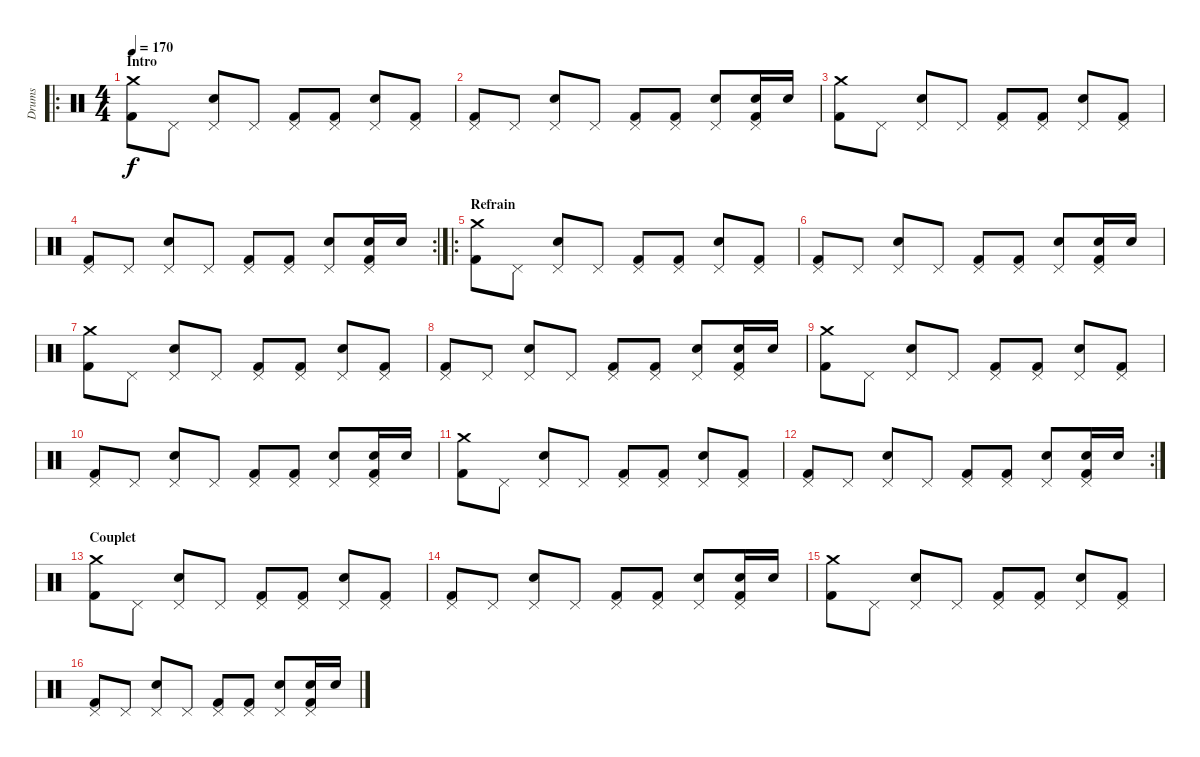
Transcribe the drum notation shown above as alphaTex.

\track ("Drums" "Drums") {instrument percussion}
\staff {score}
\articulation defaults
\ro
\ts (4 4)
\section ("" "Intro")
\tempo 170
\clef neutral
\ks c
("Crash medium (hit)" "Kick (hit) 2").8{dy f} "Pedal Hi-Hat (hit)".8 ("Pedal Hi-Hat (hit)" "Snare (hit) 2").8 "Pedal Hi-Hat (hit)".8 ("Pedal Hi-Hat (hit)" "Kick (hit) 2").8 ("Pedal Hi-Hat (hit)" "Kick (hit) 2").8 ("Pedal Hi-Hat (hit)" "Snare (hit) 2").8 ("Pedal Hi-Hat (hit)" "Kick (hit) 2").8 |
("Pedal Hi-Hat (hit)" "Kick (hit) 2").8 "Pedal Hi-Hat (hit)".8 ("Pedal Hi-Hat (hit)" "Snare (hit) 2").8 "Pedal Hi-Hat (hit)".8 ("Pedal Hi-Hat (hit)" "Kick (hit) 2").8 ("Pedal Hi-Hat (hit)" "Kick (hit) 2").8 ("Pedal Hi-Hat (hit)" "Snare (hit) 2").8 ("Pedal Hi-Hat (hit)" "Snare (hit) 2" "Kick (hit) 2").16 "Snare (hit) 2".16 |
("Crash medium (hit)" "Kick (hit) 2").8 "Pedal Hi-Hat (hit)".8 ("Pedal Hi-Hat (hit)" "Snare (hit) 2").8 "Pedal Hi-Hat (hit)".8 ("Pedal Hi-Hat (hit)" "Kick (hit) 2").8 ("Pedal Hi-Hat (hit)" "Kick (hit) 2").8 ("Pedal Hi-Hat (hit)" "Snare (hit) 2").8 ("Pedal Hi-Hat (hit)" "Kick (hit) 2").8 |
\rc 2
("Pedal Hi-Hat (hit)" "Kick (hit) 2").8 "Pedal Hi-Hat (hit)".8 ("Pedal Hi-Hat (hit)" "Snare (hit) 2").8 "Pedal Hi-Hat (hit)".8 ("Pedal Hi-Hat (hit)" "Kick (hit) 2").8 ("Pedal Hi-Hat (hit)" "Kick (hit) 2").8 ("Pedal Hi-Hat (hit)" "Snare (hit) 2").8 ("Pedal Hi-Hat (hit)" "Snare (hit) 2" "Kick (hit) 2").16 "Snare (hit) 2".16 |
\ro
\section ("" "Refrain")
("Crash medium (hit)" "Kick (hit) 2").8 "Pedal Hi-Hat (hit)".8 ("Pedal Hi-Hat (hit)" "Snare (hit) 2").8 "Pedal Hi-Hat (hit)".8 ("Pedal Hi-Hat (hit)" "Kick (hit) 2").8 ("Pedal Hi-Hat (hit)" "Kick (hit) 2").8 ("Pedal Hi-Hat (hit)" "Snare (hit) 2").8 ("Pedal Hi-Hat (hit)" "Kick (hit) 2").8 |
("Pedal Hi-Hat (hit)" "Kick (hit) 2").8 "Pedal Hi-Hat (hit)".8 ("Pedal Hi-Hat (hit)" "Snare (hit) 2").8 "Pedal Hi-Hat (hit)".8 ("Pedal Hi-Hat (hit)" "Kick (hit) 2").8 ("Pedal Hi-Hat (hit)" "Kick (hit) 2").8 ("Pedal Hi-Hat (hit)" "Snare (hit) 2").8 ("Pedal Hi-Hat (hit)" "Snare (hit) 2" "Kick (hit) 2").16 "Snare (hit) 2".16 |
("Crash medium (hit)" "Kick (hit) 2").8 "Pedal Hi-Hat (hit)".8 ("Pedal Hi-Hat (hit)" "Snare (hit) 2").8 "Pedal Hi-Hat (hit)".8 ("Pedal Hi-Hat (hit)" "Kick (hit) 2").8 ("Pedal Hi-Hat (hit)" "Kick (hit) 2").8 ("Pedal Hi-Hat (hit)" "Snare (hit) 2").8 ("Pedal Hi-Hat (hit)" "Kick (hit) 2").8 |
("Pedal Hi-Hat (hit)" "Kick (hit) 2").8 "Pedal Hi-Hat (hit)".8 ("Pedal Hi-Hat (hit)" "Snare (hit) 2").8 "Pedal Hi-Hat (hit)".8 ("Pedal Hi-Hat (hit)" "Kick (hit) 2").8 ("Pedal Hi-Hat (hit)" "Kick (hit) 2").8 ("Pedal Hi-Hat (hit)" "Snare (hit) 2").8 ("Pedal Hi-Hat (hit)" "Snare (hit) 2" "Kick (hit) 2").16 "Snare (hit) 2".16 |
("Crash medium (hit)" "Kick (hit) 2").8 "Pedal Hi-Hat (hit)".8 ("Pedal Hi-Hat (hit)" "Snare (hit) 2").8 "Pedal Hi-Hat (hit)".8 ("Pedal Hi-Hat (hit)" "Kick (hit) 2").8 ("Pedal Hi-Hat (hit)" "Kick (hit) 2").8 ("Pedal Hi-Hat (hit)" "Snare (hit) 2").8 ("Pedal Hi-Hat (hit)" "Kick (hit) 2").8 |
("Pedal Hi-Hat (hit)" "Kick (hit) 2").8 "Pedal Hi-Hat (hit)".8 ("Pedal Hi-Hat (hit)" "Snare (hit) 2").8 "Pedal Hi-Hat (hit)".8 ("Pedal Hi-Hat (hit)" "Kick (hit) 2").8 ("Pedal Hi-Hat (hit)" "Kick (hit) 2").8 ("Pedal Hi-Hat (hit)" "Snare (hit) 2").8 ("Pedal Hi-Hat (hit)" "Snare (hit) 2" "Kick (hit) 2").16 "Snare (hit) 2".16 |
("Crash medium (hit)" "Kick (hit) 2").8 "Pedal Hi-Hat (hit)".8 ("Pedal Hi-Hat (hit)" "Snare (hit) 2").8 "Pedal Hi-Hat (hit)".8 ("Pedal Hi-Hat (hit)" "Kick (hit) 2").8 ("Pedal Hi-Hat (hit)" "Kick (hit) 2").8 ("Pedal Hi-Hat (hit)" "Snare (hit) 2").8 ("Pedal Hi-Hat (hit)" "Kick (hit) 2").8 |
\rc 2
("Pedal Hi-Hat (hit)" "Kick (hit) 2").8 "Pedal Hi-Hat (hit)".8 ("Pedal Hi-Hat (hit)" "Snare (hit) 2").8 "Pedal Hi-Hat (hit)".8 ("Pedal Hi-Hat (hit)" "Kick (hit) 2").8 ("Pedal Hi-Hat (hit)" "Kick (hit) 2").8 ("Pedal Hi-Hat (hit)" "Snare (hit) 2").8 ("Pedal Hi-Hat (hit)" "Snare (hit) 2" "Kick (hit) 2").16 "Snare (hit) 2".16 |
\section ("" "Couplet")
("Crash medium (hit)" "Kick (hit) 2").8 "Pedal Hi-Hat (hit)".8 ("Pedal Hi-Hat (hit)" "Snare (hit) 2").8 "Pedal Hi-Hat (hit)".8 ("Pedal Hi-Hat (hit)" "Kick (hit) 2").8 ("Pedal Hi-Hat (hit)" "Kick (hit) 2").8 ("Pedal Hi-Hat (hit)" "Snare (hit) 2").8 ("Pedal Hi-Hat (hit)" "Kick (hit) 2").8 |
("Pedal Hi-Hat (hit)" "Kick (hit) 2").8 "Pedal Hi-Hat (hit)".8 ("Pedal Hi-Hat (hit)" "Snare (hit) 2").8 "Pedal Hi-Hat (hit)".8 ("Pedal Hi-Hat (hit)" "Kick (hit) 2").8 ("Pedal Hi-Hat (hit)" "Kick (hit) 2").8 ("Pedal Hi-Hat (hit)" "Snare (hit) 2").8 ("Pedal Hi-Hat (hit)" "Snare (hit) 2" "Kick (hit) 2").16 "Snare (hit) 2".16 |
("Crash medium (hit)" "Kick (hit) 2").8 "Pedal Hi-Hat (hit)".8 ("Pedal Hi-Hat (hit)" "Snare (hit) 2").8 "Pedal Hi-Hat (hit)".8 ("Pedal Hi-Hat (hit)" "Kick (hit) 2").8 ("Pedal Hi-Hat (hit)" "Kick (hit) 2").8 ("Pedal Hi-Hat (hit)" "Snare (hit) 2").8 ("Pedal Hi-Hat (hit)" "Kick (hit) 2").8 |
("Pedal Hi-Hat (hit)" "Kick (hit) 2").8 "Pedal Hi-Hat (hit)".8 ("Pedal Hi-Hat (hit)" "Snare (hit) 2").8 "Pedal Hi-Hat (hit)".8 ("Pedal Hi-Hat (hit)" "Kick (hit) 2").8 ("Pedal Hi-Hat (hit)" "Kick (hit) 2").8 ("Pedal Hi-Hat (hit)" "Snare (hit) 2").8 ("Pedal Hi-Hat (hit)" "Snare (hit) 2" "Kick (hit) 2").16 "Snare (hit) 2".16
